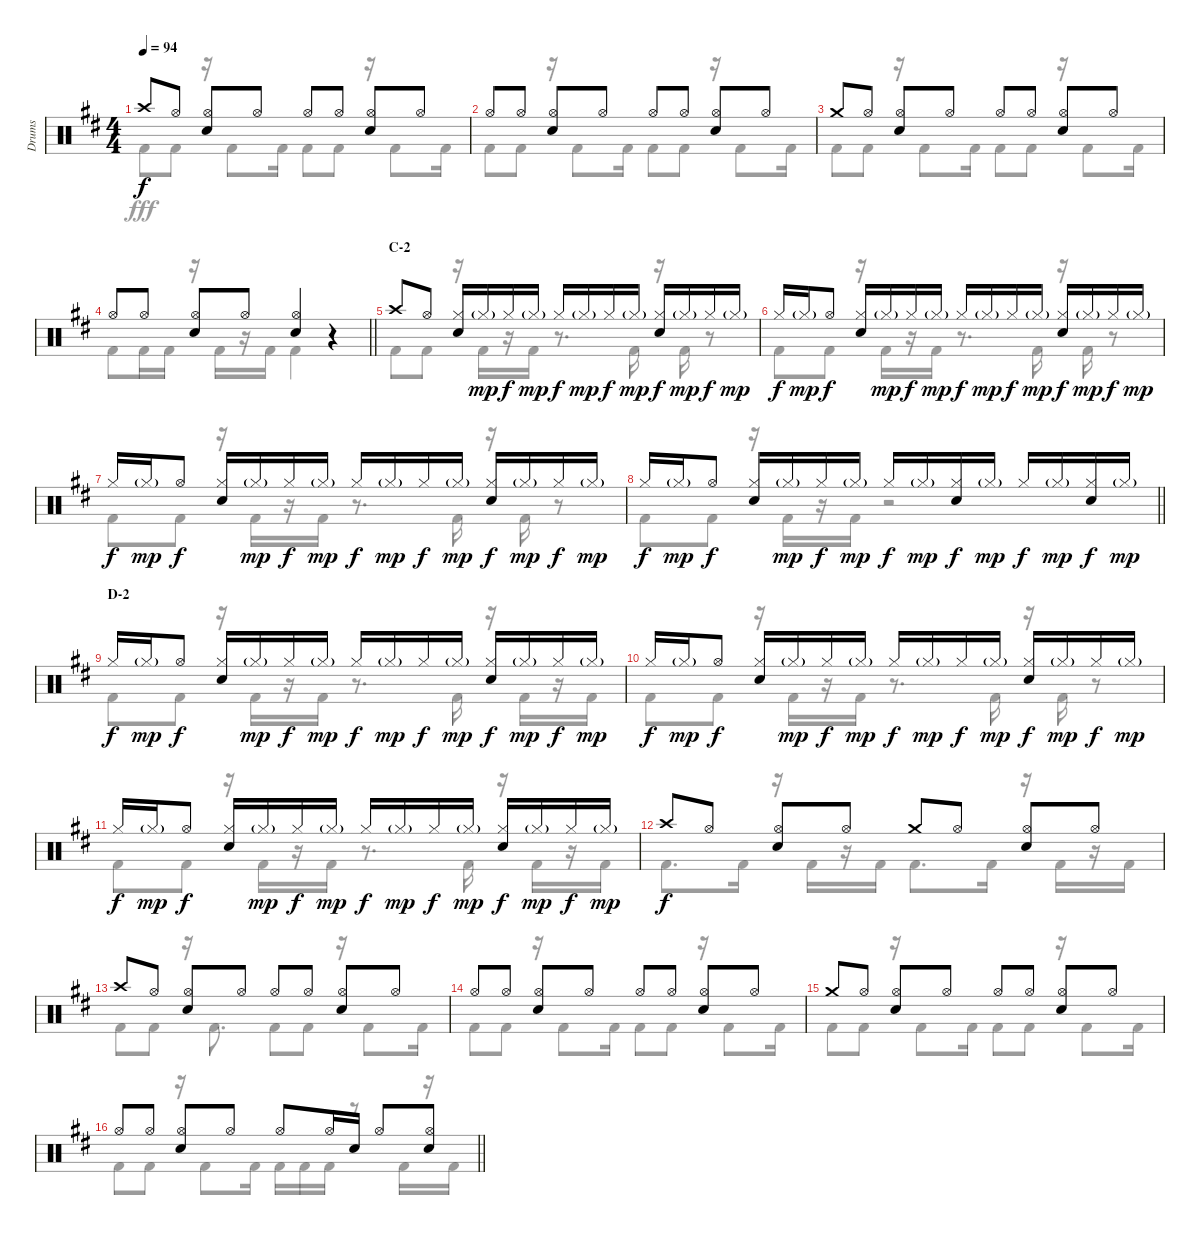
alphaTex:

\track ("Drums" "Drums") {instrument percussion}
\staff {score}
\articulation defaults
\voice
\ts (4 4)
\tempo 94
\clef neutral
\ks d "Crash high (hit)".8{dy f} "Hi-Hat (open)".8
("Hi-Hat (open)" "Snare (hit) 2").8 "Hi-Hat (open)".8 "Hi-Hat (open)".8 "Hi-Hat (open)".8 ("Hi-Hat (open)" "Snare (hit) 2").8 "Hi-Hat (open)".8 |
"Hi-Hat (open)".8 "Hi-Hat (open)".8 ("Hi-Hat (open)" "Snare (hit) 2").8 "Hi-Hat (open)".8 "Hi-Hat (open)".8 "Hi-Hat (open)".8 ("Hi-Hat (open)" "Snare (hit) 2").8 "Hi-Hat (open)".8 |
"Crash medium (hit)".8 "Hi-Hat (open)".8 ("Hi-Hat (open)" "Snare (hit) 2").8 "Hi-Hat (open)".8 "Hi-Hat (open)".8 "Hi-Hat (open)".8 ("Hi-Hat (open)" "Snare (hit) 2").8 "Hi-Hat (open)".8 |
\barLineRight lightlight "Hi-Hat (open)".8 "Hi-Hat (open)".8
("Hi-Hat (open)" "Snare (hit) 2").8 "Hi-Hat (open)".8 ("Hi-Hat (open)" "Snare (hit) 2").4 r.4 |
\section ("" "C-2")
"Crash high (hit)".8 "Hi-Hat (open)".8 ("Hi-Hat (closed)" "Snare (hit) 2").16 "Hi-Hat (closed)"{g}.16{dy mp} "Hi-Hat (closed)".16{dy f} "Hi-Hat (closed)"{g}.16{dy mp} "Hi-Hat (closed)".16{dy f} "Hi-Hat (closed)"{g}.16{dy mp} "Hi-Hat (closed)".16{dy f} "Hi-Hat (closed)"{g}.16{dy mp} ("Hi-Hat (closed)" "Snare (hit) 2").16{dy f} "Hi-Hat (closed)"{g}.16{dy mp} "Hi-Hat (closed)".16{dy f} "Hi-Hat (closed)"{g}.16{dy mp} |
"Hi-Hat (closed)".16{dy f} "Hi-Hat (closed)"{g}.16{dy mp} "Hi-Hat (open)".8{dy f} ("Hi-Hat (closed)" "Snare (hit) 2").16 "Hi-Hat (closed)"{g}.16{dy mp} "Hi-Hat (closed)".16{dy f} "Hi-Hat (closed)"{g}.16{dy mp} "Hi-Hat (closed)".16{dy f} "Hi-Hat (closed)"{g}.16{dy mp} "Hi-Hat (closed)".16{dy f} "Hi-Hat (closed)"{g}.16{dy mp} ("Hi-Hat (closed)" "Snare (hit) 2").16{dy f} "Hi-Hat (closed)"{g}.16{dy mp} "Hi-Hat (closed)".16{dy f} "Hi-Hat (closed)"{g}.16{dy mp} |
"Hi-Hat (closed)".16{dy f} "Hi-Hat (closed)"{g}.16{dy mp} "Hi-Hat (open)".8{dy f} ("Hi-Hat (closed)" "Snare (hit) 2").16 "Hi-Hat (closed)"{g}.16{dy mp} "Hi-Hat (closed)".16{dy f} "Hi-Hat (closed)"{g}.16{dy mp} "Hi-Hat (closed)".16{dy f} "Hi-Hat (closed)"{g}.16{dy mp} "Hi-Hat (closed)".16{dy f} "Hi-Hat (closed)"{g}.16{dy mp} ("Hi-Hat (closed)" "Snare (hit) 2").16{dy f} "Hi-Hat (closed)"{g}.16{dy mp} "Hi-Hat (closed)".16{dy f} "Hi-Hat (closed)"{g}.16{dy mp} |
\barLineRight lightlight "Hi-Hat (closed)".16{dy f} "Hi-Hat (closed)"{g}.16{dy mp} "Hi-Hat (open)".8{dy f}
("Hi-Hat (closed)" "Snare (hit) 2").16 "Hi-Hat (closed)"{g}.16{dy mp} "Hi-Hat (closed)".16{dy f} "Hi-Hat (closed)"{g}.16{dy mp} "Hi-Hat (closed)".16{dy f} "Hi-Hat (closed)"{g}.16{dy mp} ("Hi-Hat (closed)" "Snare (hit) 2").16{dy f} "Hi-Hat (closed)"{g}.16{dy mp} "Hi-Hat (closed)".16{dy f} "Hi-Hat (closed)"{g}.16{dy mp} ("Hi-Hat (closed)" "Snare (hit) 2").16{dy f} "Hi-Hat (closed)"{g}.16{dy mp} |
\section ("" "D-2")
"Hi-Hat (closed)".16{dy f} "Hi-Hat (closed)"{g}.16{dy mp} "Hi-Hat (open)".8{dy f} ("Hi-Hat (closed)" "Snare (hit) 2").16 "Hi-Hat (closed)"{g}.16{dy mp} "Hi-Hat (closed)".16{dy f} "Hi-Hat (closed)"{g}.16{dy mp} "Hi-Hat (closed)".16{dy f} "Hi-Hat (closed)"{g}.16{dy mp} "Hi-Hat (closed)".16{dy f} "Hi-Hat (closed)"{g}.16{dy mp} ("Hi-Hat (closed)" "Snare (hit) 2").16{dy f} "Hi-Hat (closed)"{g}.16{dy mp} "Hi-Hat (closed)".16{dy f} "Hi-Hat (closed)"{g}.16{dy mp} |
"Hi-Hat (closed)".16{dy f} "Hi-Hat (closed)"{g}.16{dy mp} "Hi-Hat (open)".8{dy f} ("Hi-Hat (closed)" "Snare (hit) 2").16 "Hi-Hat (closed)"{g}.16{dy mp} "Hi-Hat (closed)".16{dy f} "Hi-Hat (closed)"{g}.16{dy mp} "Hi-Hat (closed)".16{dy f} "Hi-Hat (closed)"{g}.16{dy mp} "Hi-Hat (closed)".16{dy f} "Hi-Hat (closed)"{g}.16{dy mp} ("Hi-Hat (closed)" "Snare (hit) 2").16{dy f} "Hi-Hat (closed)"{g}.16{dy mp} "Hi-Hat (closed)".16{dy f} "Hi-Hat (closed)"{g}.16{dy mp} |
"Hi-Hat (closed)".16{dy f} "Hi-Hat (closed)"{g}.16{dy mp} "Hi-Hat (open)".8{dy f} ("Hi-Hat (closed)" "Snare (hit) 2").16 "Hi-Hat (closed)"{g}.16{dy mp} "Hi-Hat (closed)".16{dy f} "Hi-Hat (closed)"{g}.16{dy mp} "Hi-Hat (closed)".16{dy f} "Hi-Hat (closed)"{g}.16{dy mp} "Hi-Hat (closed)".16{dy f} "Hi-Hat (closed)"{g}.16{dy mp} ("Hi-Hat (closed)" "Snare (hit) 2").16{dy f} "Hi-Hat (closed)"{g}.16{dy mp} "Hi-Hat (closed)".16{dy f} "Hi-Hat (closed)"{g}.16{dy mp} |
"Crash high (hit)".8{dy f} "Hi-Hat (open)".8 ("Hi-Hat (open)" "Snare (hit) 2").8 "Hi-Hat (open)".8 "Crash medium (hit)".8 "Hi-Hat (open)".8 ("Hi-Hat (open)" "Snare (hit) 2").8 "Hi-Hat (open)".8 |
"Crash high (hit)".8 "Hi-Hat (open)".8 ("Hi-Hat (open)" "Snare (hit) 2").8 "Hi-Hat (open)".8 "Hi-Hat (open)".8 "Hi-Hat (open)".8 ("Hi-Hat (open)" "Snare (hit) 2").8 "Hi-Hat (open)".8 |
"Hi-Hat (open)".8 "Hi-Hat (open)".8 ("Hi-Hat (open)" "Snare (hit) 2").8 "Hi-Hat (open)".8 "Hi-Hat (open)".8 "Hi-Hat (open)".8 ("Hi-Hat (open)" "Snare (hit) 2").8 "Hi-Hat (open)".8 |
"Crash medium (hit)".8 "Hi-Hat (open)".8 ("Hi-Hat (open)" "Snare (hit) 2").8 "Hi-Hat (open)".8 "Hi-Hat (open)".8 "Hi-Hat (open)".8 ("Hi-Hat (open)" "Snare (hit) 2").8 "Hi-Hat (open)".8 |
\barLineRight lightlight "Hi-Hat (open)".8 "Hi-Hat (open)".8
("Hi-Hat (open)" "Snare (hit) 2").8 "Hi-Hat (open)".8 "Hi-Hat (open)".8 "Hi-Hat (open)".16 "Snare (hit) 2".16 "Hi-Hat (open)".8 ("Hi-Hat (open)" "Snare (hit) 2").8
\voice
\clef neutral
\ottava regular
\simile none
\ks d "Kick (hit) 2".8{dy fff} "Kick (hit) 2".8
r.16 "Kick (hit) 2".8 "Kick (hit) 2".16 "Kick (hit) 2".8 "Kick (hit) 2".8 r.16 "Kick (hit) 2".8 "Kick (hit) 2".16 |
"Kick (hit) 2".8 "Kick (hit) 2".8 r.16 "Kick (hit) 2".8 "Kick (hit) 2".16 "Kick (hit) 2".8 "Kick (hit) 2".8 r.16 "Kick (hit) 2".8 "Kick (hit) 2".16 |
"Kick (hit) 2".8 "Kick (hit) 2".8 r.16 "Kick (hit) 2".8 "Kick (hit) 2".16 "Kick (hit) 2".8 "Kick (hit) 2".8 r.16 "Kick (hit) 2".8 "Kick (hit) 2".16 |
\barLineRight lightlight "Kick (hit) 2".8 "Kick (hit) 2".16 "Kick (hit) 2".16
r.16 "Kick (hit) 2".16 r.16 "Kick (hit) 2".16 "Kick (hit) 2".4 r.4 |
"Kick (hit) 2".8 "Kick (hit) 2".8 r.16 "Kick (hit) 2".16 r.16 "Kick (hit) 2".16 r.8{d} "Kick (hit) 2".16 r.16 "Kick (hit) 2".16 r.8 |
"Kick (hit) 2".8 "Kick (hit) 2".8 r.16 "Kick (hit) 2".16 r.16 "Kick (hit) 2".16 r.8{d} "Kick (hit) 2".16 r.16 "Kick (hit) 2".16 r.8 |
"Kick (hit) 2".8 "Kick (hit) 2".8 r.16 "Kick (hit) 2".16 r.16 "Kick (hit) 2".16 r.8{d} "Kick (hit) 2".16 r.16 "Kick (hit) 2".16 r.8 |
\barLineRight lightlight "Kick (hit) 2".8 "Kick (hit) 2".8
r.16 "Kick (hit) 2".16 r.16 "Kick (hit) 2".16 r.2 |
"Kick (hit) 2".8 "Kick (hit) 2".8 r.16 "Kick (hit) 2".16 r.16 "Kick (hit) 2".16 r.8{d} "Kick (hit) 2".16 r.16 "Kick (hit) 2".16 r.16 "Kick (hit) 2".16 |
"Kick (hit) 2".8 "Kick (hit) 2".8 r.16 "Kick (hit) 2".16 r.16 "Kick (hit) 2".16 r.8{d} "Kick (hit) 2".16 r.16 "Kick (hit) 2".16 r.8 |
"Kick (hit) 2".8 "Kick (hit) 2".8 r.16 "Kick (hit) 2".16 r.16 "Kick (hit) 2".16 r.8{d} "Kick (hit) 2".16 r.16 "Kick (hit) 2".16 r.16 "Kick (hit) 2".16 |
"Kick (hit) 2".8{d} "Kick (hit) 2".16 r.16 "Kick (hit) 2".16 r.16 "Kick (hit) 2".16 "Kick (hit) 2".8{d} "Kick (hit) 2".16 r.16 "Kick (hit) 2".16 r.16 "Kick (hit) 2".16 |
"Kick (hit) 2".8 "Kick (hit) 2".8 r.16 "Kick (hit) 2".8{d} "Kick (hit) 2".8 "Kick (hit) 2".8 r.16 "Kick (hit) 2".8 "Kick (hit) 2".16 |
"Kick (hit) 2".8 "Kick (hit) 2".8 r.16 "Kick (hit) 2".8 "Kick (hit) 2".16 "Kick (hit) 2".8 "Kick (hit) 2".8 r.16 "Kick (hit) 2".8 "Kick (hit) 2".16 |
"Kick (hit) 2".8 "Kick (hit) 2".8 r.16 "Kick (hit) 2".8 "Kick (hit) 2".16 "Kick (hit) 2".8 "Kick (hit) 2".8 r.16 "Kick (hit) 2".8 "Kick (hit) 2".16 |
\barLineRight lightlight "Kick (hit) 2".8 "Kick (hit) 2".8
r.16 "Kick (hit) 2".8 "Kick (hit) 2".16 "Kick (hit) 2".16 "Kick (hit) 2".16 "Kick (hit) 2".16 r.8 "Kick (hit) 2".16 r.16 "Kick (hit) 2".16
